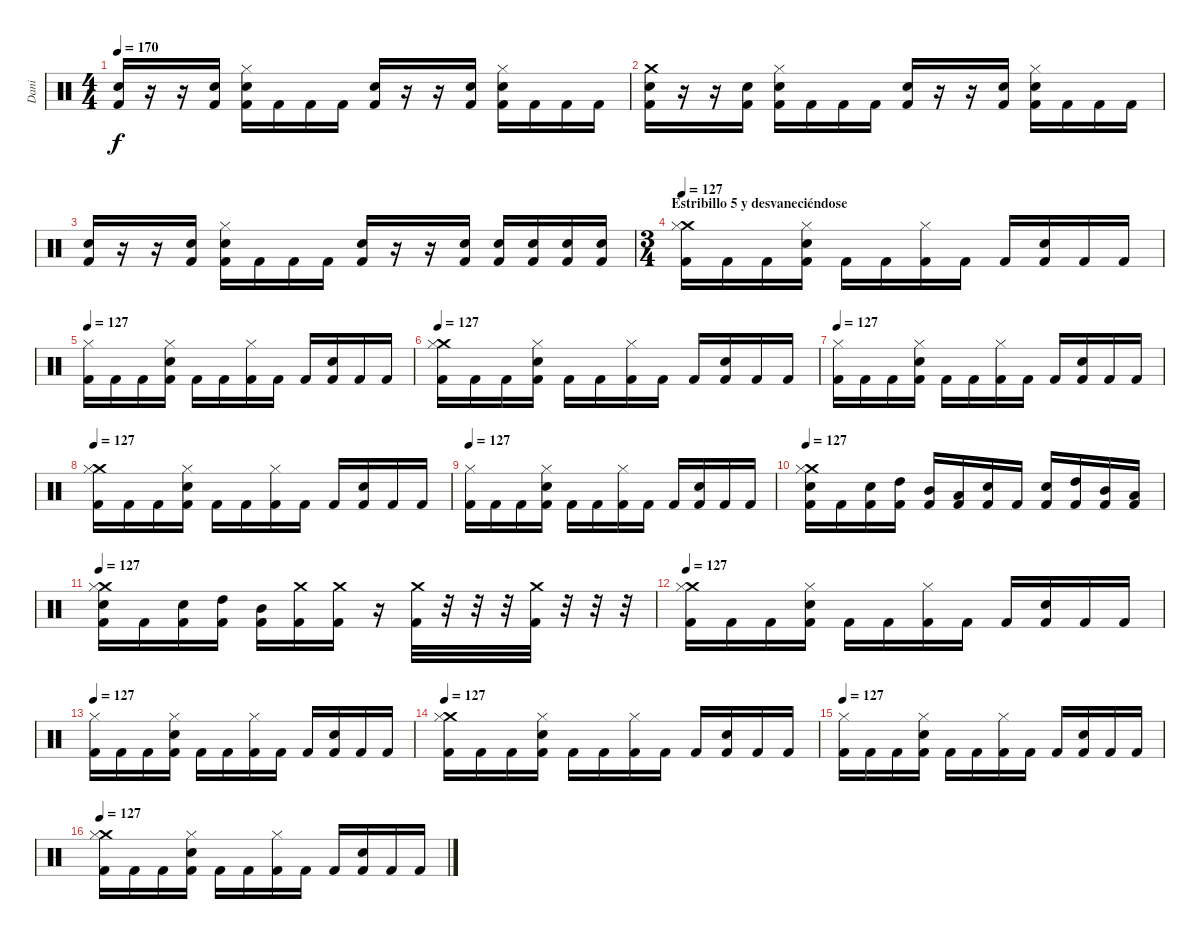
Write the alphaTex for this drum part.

\track ("Dani" "Dani") {instrument percussion}
\staff {score}
\articulation defaults
\ts (4 4)
\tempo 170
\clef neutral
\ks c
("Electric Snare (hit)" "Kick (hit) 2").16{dy f} r.16 r.16 ("Electric Snare (hit)" "Kick (hit) 2").16 ("Hi-Hat (closed)" "Electric Snare (hit)" "Kick (hit) 2").16 "Kick (hit) 2".16 "Kick (hit) 2".16 "Kick (hit) 2".16 ("Electric Snare (hit)" "Kick (hit) 2").16 r.16 r.16 ("Electric Snare (hit)" "Kick (hit) 2").16 ("Hi-Hat (closed)" "Electric Snare (hit)" "Kick (hit) 2").16 "Kick (hit) 2".16 "Kick (hit) 2".16 "Kick (hit) 2".16 |
("Crash medium (hit)" "Electric Snare (hit)" "Kick (hit) 2").16 r.16 r.16 ("Electric Snare (hit)" "Kick (hit) 2").16 ("Hi-Hat (closed)" "Electric Snare (hit)" "Kick (hit) 2").16 "Kick (hit) 2".16 "Kick (hit) 2".16 "Kick (hit) 2".16 ("Electric Snare (hit)" "Kick (hit) 2").16 r.16 r.16 ("Electric Snare (hit)" "Kick (hit) 2").16 ("Hi-Hat (closed)" "Electric Snare (hit)" "Kick (hit) 2").16 "Kick (hit) 2".16 "Kick (hit) 2".16 "Kick (hit) 2".16 |
("Electric Snare (hit)" "Kick (hit) 2").16 r.16 r.16 ("Electric Snare (hit)" "Kick (hit) 2").16 ("Hi-Hat (closed)" "Electric Snare (hit)" "Kick (hit) 2").16 "Kick (hit) 2".16 "Kick (hit) 2".16 "Kick (hit) 2".16 ("Electric Snare (hit)" "Kick (hit) 2").16 r.16 r.16 ("Electric Snare (hit)" "Kick (hit) 2").16 ("Electric Snare (hit)" "Kick (hit) 2").16 ("Electric Snare (hit)" "Kick (hit) 2").16 ("Electric Snare (hit)" "Kick (hit) 2").16 ("Electric Snare (hit)" "Kick (hit) 2").16 |
\ts (3 4)
\section ("" "Estribillo 5 y desvaneciéndose")
\tempo 127
("Crash medium (hit)" "Hi-Hat (closed)" "Kick (hit) 2").16 "Kick (hit) 2".16 "Kick (hit) 2".16 ("Hi-Hat (closed)" "Electric Snare (hit)" "Kick (hit) 2").16 "Kick (hit) 2".16 "Kick (hit) 2".16 ("Hi-Hat (closed)" "Kick (hit) 2").16 "Kick (hit) 2".16 "Kick (hit) 2".16 ("Electric Snare (hit)" "Kick (hit) 2").16 "Kick (hit) 2".16 "Kick (hit) 2".16 |
\tempo 127
("Hi-Hat (closed)" "Kick (hit) 2").16 "Kick (hit) 2".16 "Kick (hit) 2".16 ("Hi-Hat (closed)" "Electric Snare (hit)" "Kick (hit) 2").16 "Kick (hit) 2".16 "Kick (hit) 2".16 ("Hi-Hat (closed)" "Kick (hit) 2").16 "Kick (hit) 2".16 "Kick (hit) 2".16 ("Electric Snare (hit)" "Kick (hit) 2").16 "Kick (hit) 2".16 "Kick (hit) 2".16 |
\tempo 127
("Crash medium (hit)" "Hi-Hat (closed)" "Kick (hit) 2").16 "Kick (hit) 2".16 "Kick (hit) 2".16 ("Hi-Hat (closed)" "Electric Snare (hit)" "Kick (hit) 2").16 "Kick (hit) 2".16 "Kick (hit) 2".16 ("Hi-Hat (closed)" "Kick (hit) 2").16 "Kick (hit) 2".16 "Kick (hit) 2".16 ("Electric Snare (hit)" "Kick (hit) 2").16 "Kick (hit) 2".16 "Kick (hit) 2".16 |
\tempo 127
("Hi-Hat (closed)" "Kick (hit) 2").16 "Kick (hit) 2".16 "Kick (hit) 2".16 ("Hi-Hat (closed)" "Electric Snare (hit)" "Kick (hit) 2").16 "Kick (hit) 2".16 "Kick (hit) 2".16 ("Hi-Hat (closed)" "Kick (hit) 2").16 "Kick (hit) 2".16 "Kick (hit) 2".16 ("Electric Snare (hit)" "Kick (hit) 2").16 "Kick (hit) 2".16 "Kick (hit) 2".16 |
\tempo 127
("Crash medium (hit)" "Hi-Hat (closed)" "Kick (hit) 2").16 "Kick (hit) 2".16 "Kick (hit) 2".16 ("Hi-Hat (closed)" "Electric Snare (hit)" "Kick (hit) 2").16 "Kick (hit) 2".16 "Kick (hit) 2".16 ("Hi-Hat (closed)" "Kick (hit) 2").16 "Kick (hit) 2".16 "Kick (hit) 2".16 ("Electric Snare (hit)" "Kick (hit) 2").16 "Kick (hit) 2".16 "Kick (hit) 2".16 |
\tempo 127
("Hi-Hat (closed)" "Kick (hit) 2").16 "Kick (hit) 2".16 "Kick (hit) 2".16 ("Hi-Hat (closed)" "Electric Snare (hit)" "Kick (hit) 2").16 "Kick (hit) 2".16 "Kick (hit) 2".16 ("Hi-Hat (closed)" "Kick (hit) 2").16 "Kick (hit) 2".16 "Kick (hit) 2".16 ("Electric Snare (hit)" "Kick (hit) 2").16 "Kick (hit) 2".16 "Kick (hit) 2".16 |
\tempo 127
("Crash medium (hit)" "Hi-Hat (closed)" "Electric Snare (hit)" "Kick (hit) 2").16 "Kick (hit) 2".16 ("Electric Snare (hit)" "Kick (hit) 2").16 ("High Tom (hit)" "Kick (hit) 2").16 ("Mid Tom (hit)" "Kick (hit) 2").16 ("Low Tom (hit)" "Kick (hit) 2").16 ("Electric Snare (hit)" "Kick (hit) 2").16 "Kick (hit) 2".16 ("Electric Snare (hit)" "Kick (hit) 2").16 ("High Tom (hit)" "Kick (hit) 2").16 ("Mid Tom (hit)" "Kick (hit) 2").16 ("Low Tom (hit)" "Kick (hit) 2").16 |
\tempo 127
("Crash medium (hit)" "Hi-Hat (closed)" "Electric Snare (hit)" "Kick (hit) 2").16 "Kick (hit) 2".16 ("Electric Snare (hit)" "Kick (hit) 2").16 ("High Tom (hit)" "Kick (hit) 2").16 ("Mid Tom (hit)" "Kick (hit) 2").16 ("Crash medium (hit)" "Kick (hit) 2").16 ("Crash medium (hit)" "Kick (hit) 2").16 r.16 ("Crash medium (hit)" "Kick (hit) 2").32 r.32 r.32 r.32 ("Crash medium (hit)" "Kick (hit) 2").32 r.32 r.32 r.32 |
\tempo 127
("Crash medium (hit)" "Hi-Hat (closed)" "Kick (hit) 2").16 "Kick (hit) 2".16 "Kick (hit) 2".16 ("Hi-Hat (closed)" "Electric Snare (hit)" "Kick (hit) 2").16 "Kick (hit) 2".16 "Kick (hit) 2".16 ("Hi-Hat (closed)" "Kick (hit) 2").16 "Kick (hit) 2".16 "Kick (hit) 2".16 ("Electric Snare (hit)" "Kick (hit) 2").16 "Kick (hit) 2".16 "Kick (hit) 2".16 |
\tempo 127
("Hi-Hat (closed)" "Kick (hit) 2").16 "Kick (hit) 2".16 "Kick (hit) 2".16 ("Hi-Hat (closed)" "Electric Snare (hit)" "Kick (hit) 2").16 "Kick (hit) 2".16 "Kick (hit) 2".16 ("Hi-Hat (closed)" "Kick (hit) 2").16 "Kick (hit) 2".16 "Kick (hit) 2".16 ("Electric Snare (hit)" "Kick (hit) 2").16 "Kick (hit) 2".16 "Kick (hit) 2".16 |
\tempo 127
("Crash medium (hit)" "Hi-Hat (closed)" "Kick (hit) 2").16 "Kick (hit) 2".16 "Kick (hit) 2".16 ("Hi-Hat (closed)" "Electric Snare (hit)" "Kick (hit) 2").16 "Kick (hit) 2".16 "Kick (hit) 2".16 ("Hi-Hat (closed)" "Kick (hit) 2").16 "Kick (hit) 2".16 "Kick (hit) 2".16 ("Electric Snare (hit)" "Kick (hit) 2").16 "Kick (hit) 2".16 "Kick (hit) 2".16 |
\tempo 127
("Hi-Hat (closed)" "Kick (hit) 2").16 "Kick (hit) 2".16 "Kick (hit) 2".16 ("Hi-Hat (closed)" "Electric Snare (hit)" "Kick (hit) 2").16 "Kick (hit) 2".16 "Kick (hit) 2".16 ("Hi-Hat (closed)" "Kick (hit) 2").16 "Kick (hit) 2".16 "Kick (hit) 2".16 ("Electric Snare (hit)" "Kick (hit) 2").16 "Kick (hit) 2".16 "Kick (hit) 2".16 |
\tempo 127
("Crash medium (hit)" "Hi-Hat (closed)" "Kick (hit) 2").16 "Kick (hit) 2".16 "Kick (hit) 2".16 ("Hi-Hat (closed)" "Electric Snare (hit)" "Kick (hit) 2").16 "Kick (hit) 2".16 "Kick (hit) 2".16 ("Hi-Hat (closed)" "Kick (hit) 2").16 "Kick (hit) 2".16 "Kick (hit) 2".16 ("Electric Snare (hit)" "Kick (hit) 2").16 "Kick (hit) 2".16 "Kick (hit) 2".16
